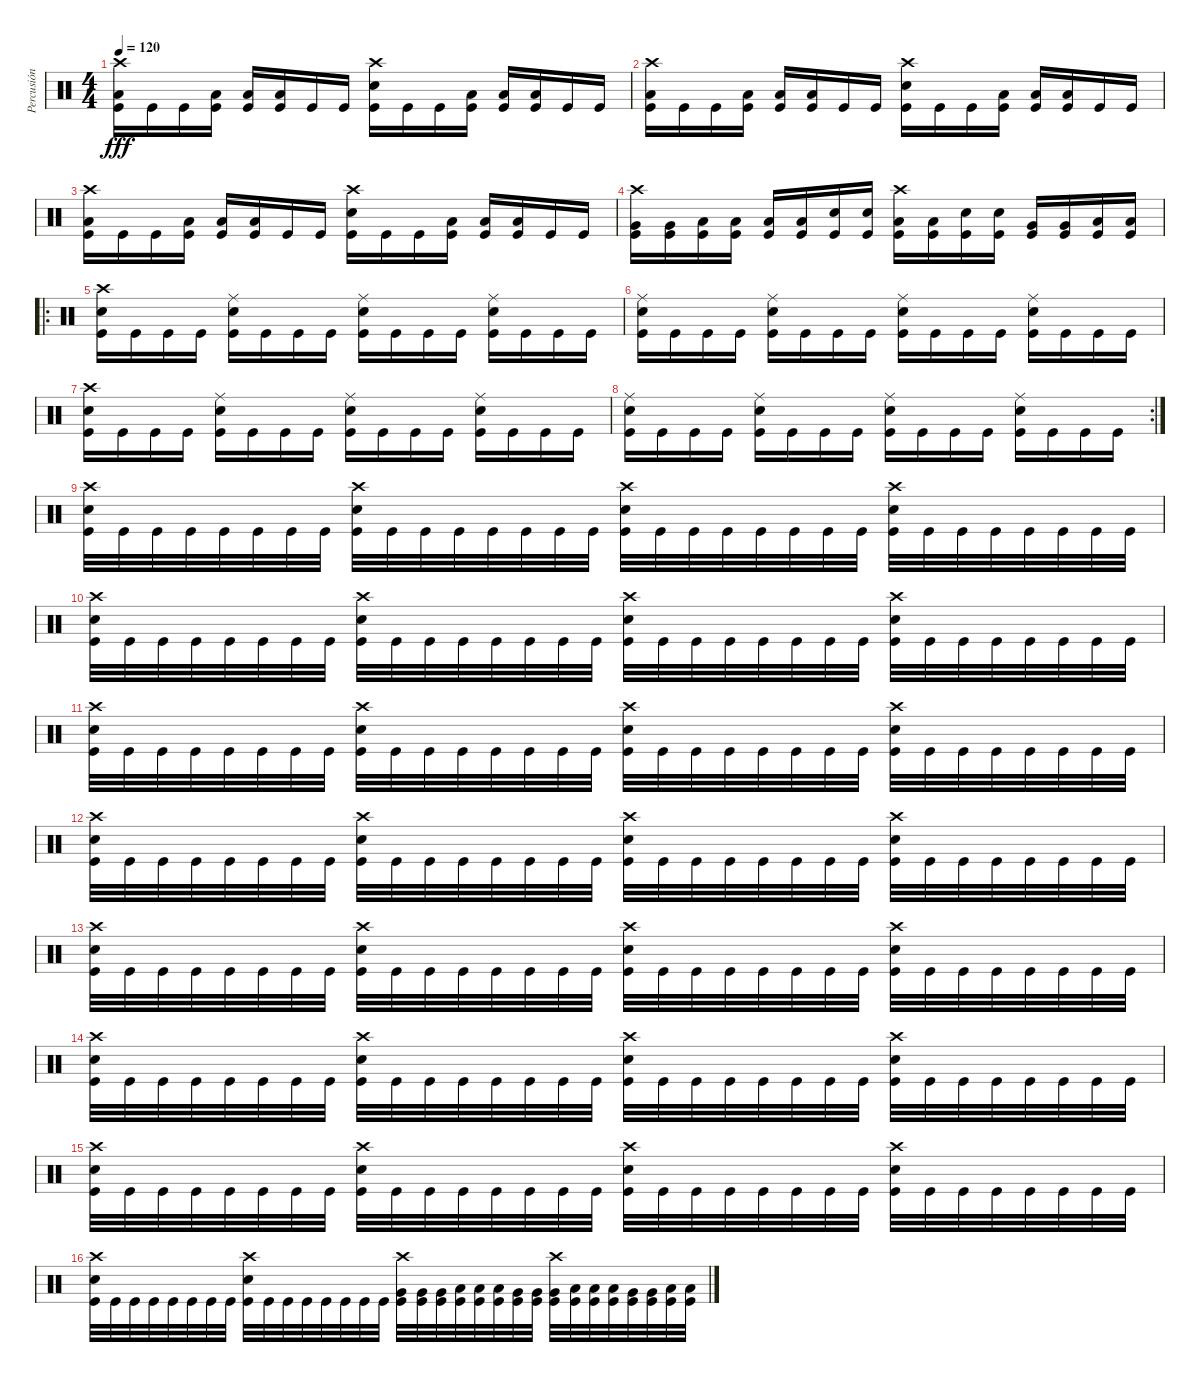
\track ("Percusión" "Percusión") {instrument percussion}
\staff {score}
\articulation defaults
\ts (4 4)
\tempo 120
\clef neutral
\ks c
("Crash high (hit)" "Low Floor Tom (hit)" "Kick (hit)").16{dy fff} "Kick (hit)".16 "Kick (hit)".16 ("Low Floor Tom (hit)" "Kick (hit)").16 ("Low Floor Tom (hit)" "Kick (hit)").16 ("Low Floor Tom (hit)" "Kick (hit)").16 "Kick (hit)".16 "Kick (hit)".16 ("Crash high (hit)" "Snare (hit) 2" "Kick (hit)").16 "Kick (hit)".16 "Kick (hit)".16 ("Low Floor Tom (hit)" "Kick (hit)").16 ("Low Floor Tom (hit)" "Kick (hit)").16 ("Low Floor Tom (hit)" "Kick (hit)").16 "Kick (hit)".16 "Kick (hit)".16 |
("Crash high (hit)" "Low Floor Tom (hit)" "Kick (hit)").16 "Kick (hit)".16 "Kick (hit)".16 ("Low Floor Tom (hit)" "Kick (hit)").16 ("Low Floor Tom (hit)" "Kick (hit)").16 ("Low Floor Tom (hit)" "Kick (hit)").16 "Kick (hit)".16 "Kick (hit)".16 ("Crash high (hit)" "Snare (hit) 2" "Kick (hit)").16 "Kick (hit)".16 "Kick (hit)".16 ("Low Floor Tom (hit)" "Kick (hit)").16 ("Low Floor Tom (hit)" "Kick (hit)").16 ("Low Floor Tom (hit)" "Kick (hit)").16 "Kick (hit)".16 "Kick (hit)".16 |
("Crash high (hit)" "Low Floor Tom (hit)" "Kick (hit)").16 "Kick (hit)".16 "Kick (hit)".16 ("Low Floor Tom (hit)" "Kick (hit)").16 ("Low Floor Tom (hit)" "Kick (hit)").16 ("Low Floor Tom (hit)" "Kick (hit)").16 "Kick (hit)".16 "Kick (hit)".16 ("Crash high (hit)" "Snare (hit) 2" "Kick (hit)").16 "Kick (hit)".16 "Kick (hit)".16 ("Low Floor Tom (hit)" "Kick (hit)").16 ("Low Floor Tom (hit)" "Kick (hit)").16 ("Low Floor Tom (hit)" "Kick (hit)").16 "Kick (hit)".16 "Kick (hit)".16 |
("Crash high (hit)" "Very Low Tom (hit)" "Kick (hit)").16 ("Very Low Tom (hit)" "Kick (hit)").16 ("Low Floor Tom (hit)" "Kick (hit)").16 ("Low Floor Tom (hit)" "Kick (hit)").16 ("Low Floor Tom (hit)" "Kick (hit)").16 ("Low Floor Tom (hit)" "Kick (hit)").16 ("Snare (hit) 2" "Kick (hit)").16 ("Snare (hit) 2" "Kick (hit)").16 ("Crash high (hit)" "Low Floor Tom (hit)" "Kick (hit)").16 ("Low Floor Tom (hit)" "Kick (hit)").16 ("Snare (hit) 2" "Kick (hit)").16 ("Snare (hit) 2" "Kick (hit)").16 ("Very Low Tom (hit)" "Kick (hit)").16 ("Very Low Tom (hit)" "Kick (hit)").16 ("Low Floor Tom (hit)" "Kick (hit)").16 ("Low Floor Tom (hit)" "Kick (hit)").16 |
\ro
("Crash high (hit)" "Snare (hit) 2" "Kick (hit)").16 "Kick (hit)".16 "Kick (hit)".16 "Kick (hit)".16 ("Ride (middle)" "Snare (hit) 2" "Kick (hit)").16 "Kick (hit)".16 "Kick (hit)".16 "Kick (hit)".16 ("Ride (middle)" "Snare (hit) 2" "Kick (hit)").16 "Kick (hit)".16 "Kick (hit)".16 "Kick (hit)".16 ("Ride (middle)" "Snare (hit) 2" "Kick (hit)").16 "Kick (hit)".16 "Kick (hit)".16 "Kick (hit)".16 |
("Ride (middle)" "Snare (hit) 2" "Kick (hit)").16 "Kick (hit)".16 "Kick (hit)".16 "Kick (hit)".16 ("Ride (middle)" "Snare (hit) 2" "Kick (hit)").16 "Kick (hit)".16 "Kick (hit)".16 "Kick (hit)".16 ("Ride (middle)" "Snare (hit) 2" "Kick (hit)").16 "Kick (hit)".16 "Kick (hit)".16 "Kick (hit)".16 ("Ride (middle)" "Snare (hit) 2" "Kick (hit)").16 "Kick (hit)".16 "Kick (hit)".16 "Kick (hit)".16 |
("Crash high (hit)" "Snare (hit) 2" "Kick (hit)").16 "Kick (hit)".16 "Kick (hit)".16 "Kick (hit)".16 ("Ride (middle)" "Snare (hit) 2" "Kick (hit)").16 "Kick (hit)".16 "Kick (hit)".16 "Kick (hit)".16 ("Ride (middle)" "Snare (hit) 2" "Kick (hit)").16 "Kick (hit)".16 "Kick (hit)".16 "Kick (hit)".16 ("Ride (middle)" "Snare (hit) 2" "Kick (hit)").16 "Kick (hit)".16 "Kick (hit)".16 "Kick (hit)".16 |
\rc 2
("Ride (middle)" "Snare (hit) 2" "Kick (hit)").16 "Kick (hit)".16 "Kick (hit)".16 "Kick (hit)".16 ("Ride (middle)" "Snare (hit) 2" "Kick (hit)").16 "Kick (hit)".16 "Kick (hit)".16 "Kick (hit)".16 ("Ride (middle)" "Snare (hit) 2" "Kick (hit)").16 "Kick (hit)".16 "Kick (hit)".16 "Kick (hit)".16 ("Ride (middle)" "Snare (hit) 2" "Kick (hit)").16 "Kick (hit)".16 "Kick (hit)".16 "Kick (hit)".16 |
("Crash high (hit)" "Snare (hit) 2" "Kick (hit)").32 "Kick (hit)".32 "Kick (hit)".32 "Kick (hit)".32 "Kick (hit)".32 "Kick (hit)".32 "Kick (hit)".32 "Kick (hit)".32 ("Crash high (hit)" "Snare (hit) 2" "Kick (hit)").32 "Kick (hit)".32 "Kick (hit)".32 "Kick (hit)".32 "Kick (hit)".32 "Kick (hit)".32 "Kick (hit)".32 "Kick (hit)".32 ("Crash high (hit)" "Snare (hit) 2" "Kick (hit)").32 "Kick (hit)".32 "Kick (hit)".32 "Kick (hit)".32 "Kick (hit)".32 "Kick (hit)".32 "Kick (hit)".32 "Kick (hit)".32 ("Crash high (hit)" "Snare (hit) 2" "Kick (hit)").32 "Kick (hit)".32 "Kick (hit)".32 "Kick (hit)".32 "Kick (hit)".32 "Kick (hit)".32 "Kick (hit)".32 "Kick (hit)".32 |
("Crash high (hit)" "Snare (hit) 2" "Kick (hit)").32 "Kick (hit)".32 "Kick (hit)".32 "Kick (hit)".32 "Kick (hit)".32 "Kick (hit)".32 "Kick (hit)".32 "Kick (hit)".32 ("Crash high (hit)" "Snare (hit) 2" "Kick (hit)").32 "Kick (hit)".32 "Kick (hit)".32 "Kick (hit)".32 "Kick (hit)".32 "Kick (hit)".32 "Kick (hit)".32 "Kick (hit)".32 ("Crash high (hit)" "Snare (hit) 2" "Kick (hit)").32 "Kick (hit)".32 "Kick (hit)".32 "Kick (hit)".32 "Kick (hit)".32 "Kick (hit)".32 "Kick (hit)".32 "Kick (hit)".32 ("Crash high (hit)" "Snare (hit) 2" "Kick (hit)").32 "Kick (hit)".32 "Kick (hit)".32 "Kick (hit)".32 "Kick (hit)".32 "Kick (hit)".32 "Kick (hit)".32 "Kick (hit)".32 |
("Crash high (hit)" "Snare (hit) 2" "Kick (hit)").32 "Kick (hit)".32 "Kick (hit)".32 "Kick (hit)".32 "Kick (hit)".32 "Kick (hit)".32 "Kick (hit)".32 "Kick (hit)".32 ("Crash high (hit)" "Snare (hit) 2" "Kick (hit)").32 "Kick (hit)".32 "Kick (hit)".32 "Kick (hit)".32 "Kick (hit)".32 "Kick (hit)".32 "Kick (hit)".32 "Kick (hit)".32 ("Crash high (hit)" "Snare (hit) 2" "Kick (hit)").32 "Kick (hit)".32 "Kick (hit)".32 "Kick (hit)".32 "Kick (hit)".32 "Kick (hit)".32 "Kick (hit)".32 "Kick (hit)".32 ("Crash high (hit)" "Snare (hit) 2" "Kick (hit)").32 "Kick (hit)".32 "Kick (hit)".32 "Kick (hit)".32 "Kick (hit)".32 "Kick (hit)".32 "Kick (hit)".32 "Kick (hit)".32 |
("Crash high (hit)" "Snare (hit) 2" "Kick (hit)").32 "Kick (hit)".32 "Kick (hit)".32 "Kick (hit)".32 "Kick (hit)".32 "Kick (hit)".32 "Kick (hit)".32 "Kick (hit)".32 ("Crash high (hit)" "Snare (hit) 2" "Kick (hit)").32 "Kick (hit)".32 "Kick (hit)".32 "Kick (hit)".32 "Kick (hit)".32 "Kick (hit)".32 "Kick (hit)".32 "Kick (hit)".32 ("Crash high (hit)" "Snare (hit) 2" "Kick (hit)").32 "Kick (hit)".32 "Kick (hit)".32 "Kick (hit)".32 "Kick (hit)".32 "Kick (hit)".32 "Kick (hit)".32 "Kick (hit)".32 ("Crash high (hit)" "Snare (hit) 2" "Kick (hit)").32 "Kick (hit)".32 "Kick (hit)".32 "Kick (hit)".32 "Kick (hit)".32 "Kick (hit)".32 "Kick (hit)".32 "Kick (hit)".32 |
("Crash high (hit)" "Snare (hit) 2" "Kick (hit)").32 "Kick (hit)".32 "Kick (hit)".32 "Kick (hit)".32 "Kick (hit)".32 "Kick (hit)".32 "Kick (hit)".32 "Kick (hit)".32 ("Crash high (hit)" "Snare (hit) 2" "Kick (hit)").32 "Kick (hit)".32 "Kick (hit)".32 "Kick (hit)".32 "Kick (hit)".32 "Kick (hit)".32 "Kick (hit)".32 "Kick (hit)".32 ("Crash high (hit)" "Snare (hit) 2" "Kick (hit)").32 "Kick (hit)".32 "Kick (hit)".32 "Kick (hit)".32 "Kick (hit)".32 "Kick (hit)".32 "Kick (hit)".32 "Kick (hit)".32 ("Crash high (hit)" "Snare (hit) 2" "Kick (hit)").32 "Kick (hit)".32 "Kick (hit)".32 "Kick (hit)".32 "Kick (hit)".32 "Kick (hit)".32 "Kick (hit)".32 "Kick (hit)".32 |
("Crash high (hit)" "Snare (hit) 2" "Kick (hit)").32 "Kick (hit)".32 "Kick (hit)".32 "Kick (hit)".32 "Kick (hit)".32 "Kick (hit)".32 "Kick (hit)".32 "Kick (hit)".32 ("Crash high (hit)" "Snare (hit) 2" "Kick (hit)").32 "Kick (hit)".32 "Kick (hit)".32 "Kick (hit)".32 "Kick (hit)".32 "Kick (hit)".32 "Kick (hit)".32 "Kick (hit)".32 ("Crash high (hit)" "Snare (hit) 2" "Kick (hit)").32 "Kick (hit)".32 "Kick (hit)".32 "Kick (hit)".32 "Kick (hit)".32 "Kick (hit)".32 "Kick (hit)".32 "Kick (hit)".32 ("Crash high (hit)" "Snare (hit) 2" "Kick (hit)").32 "Kick (hit)".32 "Kick (hit)".32 "Kick (hit)".32 "Kick (hit)".32 "Kick (hit)".32 "Kick (hit)".32 "Kick (hit)".32 |
("Crash high (hit)" "Snare (hit) 2" "Kick (hit)").32 "Kick (hit)".32 "Kick (hit)".32 "Kick (hit)".32 "Kick (hit)".32 "Kick (hit)".32 "Kick (hit)".32 "Kick (hit)".32 ("Crash high (hit)" "Snare (hit) 2" "Kick (hit)").32 "Kick (hit)".32 "Kick (hit)".32 "Kick (hit)".32 "Kick (hit)".32 "Kick (hit)".32 "Kick (hit)".32 "Kick (hit)".32 ("Crash high (hit)" "Snare (hit) 2" "Kick (hit)").32 "Kick (hit)".32 "Kick (hit)".32 "Kick (hit)".32 "Kick (hit)".32 "Kick (hit)".32 "Kick (hit)".32 "Kick (hit)".32 ("Crash high (hit)" "Snare (hit) 2" "Kick (hit)").32 "Kick (hit)".32 "Kick (hit)".32 "Kick (hit)".32 "Kick (hit)".32 "Kick (hit)".32 "Kick (hit)".32 "Kick (hit)".32 |
("Crash high (hit)" "Snare (hit) 2" "Kick (hit)").32 "Kick (hit)".32 "Kick (hit)".32 "Kick (hit)".32 "Kick (hit)".32 "Kick (hit)".32 "Kick (hit)".32 "Kick (hit)".32 ("Crash high (hit)" "Snare (hit) 2" "Kick (hit)").32 "Kick (hit)".32 "Kick (hit)".32 "Kick (hit)".32 "Kick (hit)".32 "Kick (hit)".32 "Kick (hit)".32 "Kick (hit)".32 ("Crash high (hit)" "Very Low Tom (hit)" "Kick (hit)").32 ("Very Low Tom (hit)" "Kick (hit)").32 ("Very Low Tom (hit)" "Kick (hit)").32 ("Low Floor Tom (hit)" "Kick (hit)").32 ("Low Floor Tom (hit)" "Kick (hit)").32 ("Low Floor Tom (hit)" "Kick (hit)").32 ("Very Low Tom (hit)" "Kick (hit)").32 ("Very Low Tom (hit)" "Kick (hit)").32 ("Crash high (hit)" "Very Low Tom (hit)" "Kick (hit)").32 ("Low Floor Tom (hit)" "Kick (hit)").32 ("Low Floor Tom (hit)" "Kick (hit)").32 ("Low Floor Tom (hit)" "Kick (hit)").32 ("Very Low Tom (hit)" "Kick (hit)").32 ("Very Low Tom (hit)" "Kick (hit)").32 ("Low Floor Tom (hit)" "Kick (hit)").32 ("Low Floor Tom (hit)" "Kick (hit)").32
